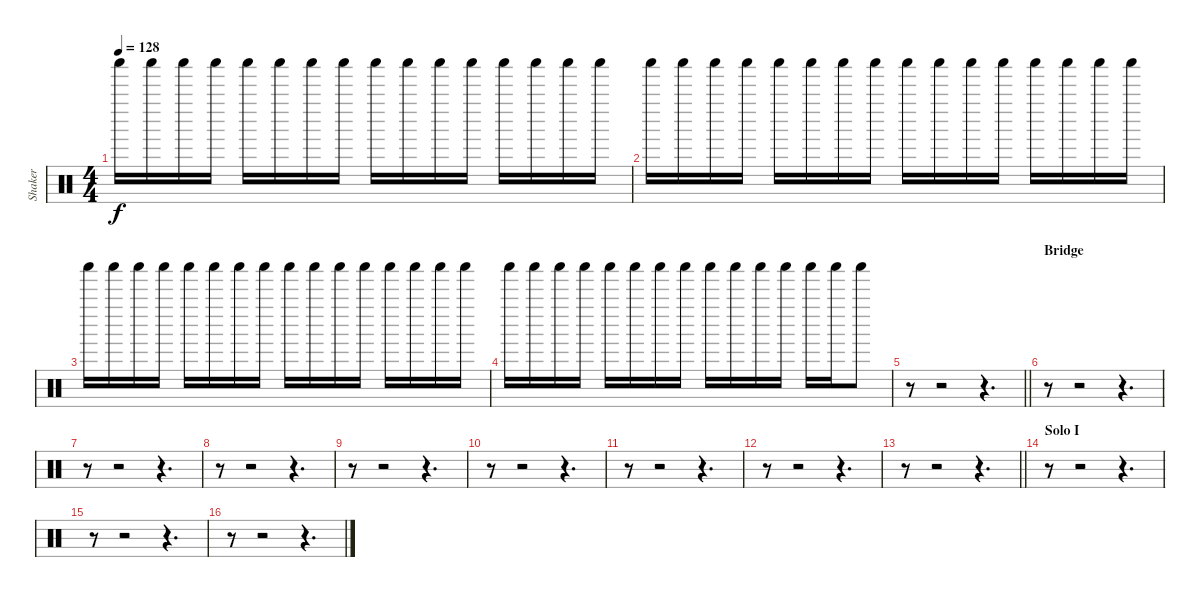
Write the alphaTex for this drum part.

\track ("Shaker" "Shaker") {instrument percussion}
\staff {score}
\articulation defaults
\ts (4 4)
\tempo 128
\clef neutral
\ks c "Shaker (hit)".16{dy f} "Shaker (hit)".16 "Shaker (hit)".16 "Shaker (hit)".16 "Shaker (hit)".16 "Shaker (hit)".16 "Shaker (hit)".16 "Shaker (hit)".16 "Shaker (hit)".16 "Shaker (hit)".16 "Shaker (hit)".16 "Shaker (hit)".16 "Shaker (hit)".16 "Shaker (hit)".16 "Shaker (hit)".16 "Shaker (hit)".16
|
"Shaker (hit)".16 "Shaker (hit)".16 "Shaker (hit)".16 "Shaker (hit)".16 "Shaker (hit)".16 "Shaker (hit)".16 "Shaker (hit)".16 "Shaker (hit)".16 "Shaker (hit)".16 "Shaker (hit)".16 "Shaker (hit)".16 "Shaker (hit)".16 "Shaker (hit)".16 "Shaker (hit)".16 "Shaker (hit)".16 "Shaker (hit)".16 |
"Shaker (hit)".16 "Shaker (hit)".16 "Shaker (hit)".16 "Shaker (hit)".16 "Shaker (hit)".16 "Shaker (hit)".16 "Shaker (hit)".16 "Shaker (hit)".16 "Shaker (hit)".16 "Shaker (hit)".16 "Shaker (hit)".16 "Shaker (hit)".16 "Shaker (hit)".16 "Shaker (hit)".16 "Shaker (hit)".16 "Shaker (hit)".16 |
"Shaker (hit)".16 "Shaker (hit)".16 "Shaker (hit)".16 "Shaker (hit)".16 "Shaker (hit)".16 "Shaker (hit)".16 "Shaker (hit)".16 "Shaker (hit)".16 "Shaker (hit)".16 "Shaker (hit)".16 "Shaker (hit)".16 "Shaker (hit)".16 "Shaker (hit)".16 "Shaker (hit)".16 "Shaker (hit)".8 |
\barLineRight lightlight
r.8 r.2 r.4{d} |
\section ("" "Bridge")
r.8 r.2 r.4{d} |
r.8 r.2 r.4{d} |
r.8 r.2 r.4{d} |
r.8 r.2 r.4{d} |
r.8 r.2 r.4{d} |
r.8 r.2 r.4{d} |
r.8 r.2 r.4{d} |
\barLineRight lightlight
r.8 r.2 r.4{d} |
\section ("" "Solo I")
r.8 r.2 r.4{d} |
r.8 r.2 r.4{d} |
r.8 r.2 r.4{d}
